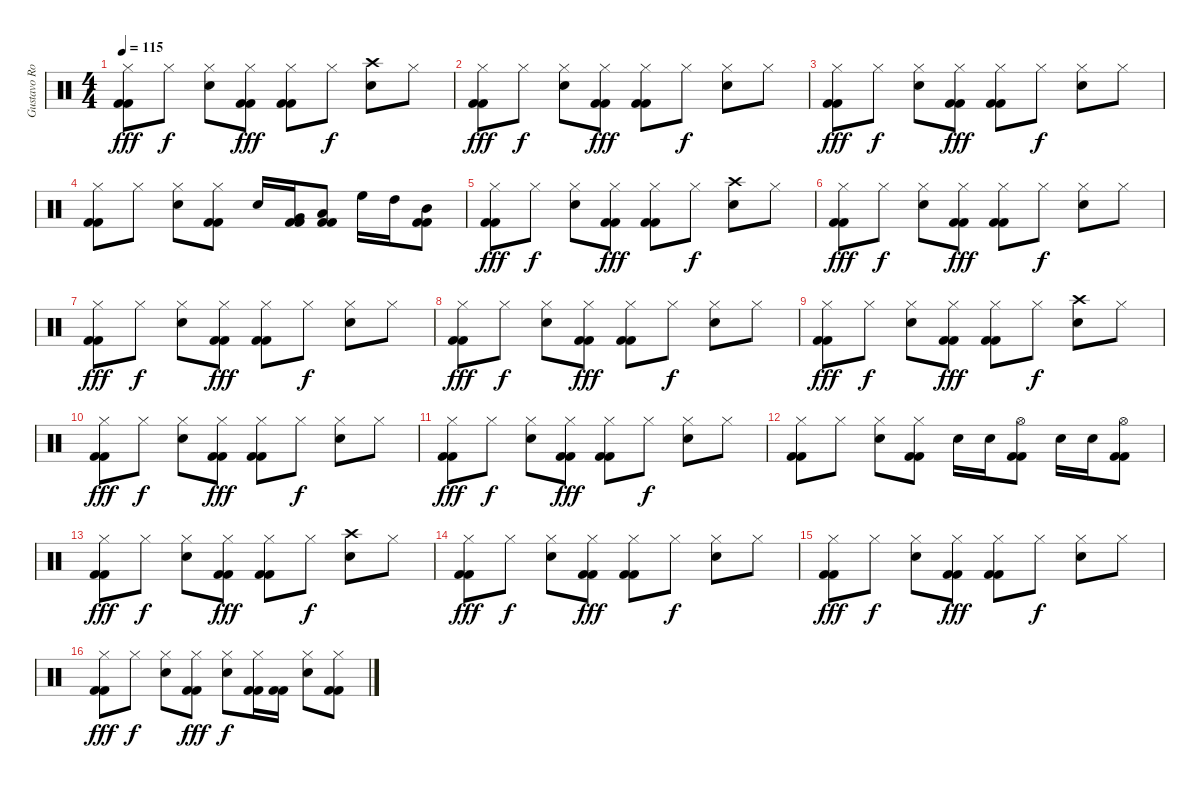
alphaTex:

\track ("Gustavo Rowek" "Gustavo Ro") {instrument percussion}
\staff {score}
\articulation defaults
\ts (4 4)
\tempo 115
\clef neutral
\ks c
("Kick (hit) 2" "Kick (hit) 2" "Hi-Hat (closed)").8{dy fff} "Hi-Hat (closed)".8{dy f} ("Snare (hit) 2" "Hi-Hat (closed)").8 ("Kick (hit) 2" "Kick (hit) 2" "Hi-Hat (closed)").8{dy fff} ("Kick (hit) 2" "Kick (hit) 2" "Hi-Hat (closed)").8 "Hi-Hat (closed)".8{dy f} ("Snare (hit) 2" "Crash high (hit)").8 "Hi-Hat (closed)".8 |
("Kick (hit) 2" "Kick (hit) 2" "Hi-Hat (closed)").8{dy fff} "Hi-Hat (closed)".8{dy f} ("Snare (hit) 2" "Hi-Hat (closed)").8 ("Kick (hit) 2" "Kick (hit) 2" "Hi-Hat (closed)").8{dy fff} ("Kick (hit) 2" "Kick (hit) 2" "Hi-Hat (closed)").8 "Hi-Hat (closed)".8{dy f} ("Snare (hit) 2" "Hi-Hat (closed)").8 "Hi-Hat (closed)".8 |
("Kick (hit) 2" "Kick (hit) 2" "Hi-Hat (closed)").8{dy fff} "Hi-Hat (closed)".8{dy f} ("Snare (hit) 2" "Hi-Hat (closed)").8 ("Kick (hit) 2" "Kick (hit) 2" "Hi-Hat (closed)").8{dy fff} ("Kick (hit) 2" "Kick (hit) 2" "Hi-Hat (closed)").8 "Hi-Hat (closed)".8{dy f} ("Snare (hit) 2" "Hi-Hat (closed)").8 "Hi-Hat (closed)".8 |
("Kick (hit) 2" "Kick (hit) 2" "Hi-Hat (closed)").8 "Hi-Hat (closed)".8 ("Snare (hit) 2" "Hi-Hat (closed)").8 ("Kick (hit) 2" "Kick (hit) 2" "Hi-Hat (closed)").8 "Snare (hit) 2".16 ("Kick (hit) 2" "Kick (hit) 2" "Very Low Tom (hit)").16 ("Kick (hit) 2" "Kick (hit) 2" "Low Floor Tom (hit)").8 "High Floor Tom (hit)".16 "High Tom (hit)".16 ("Kick (hit) 2" "Kick (hit) 2" "Mid Tom (hit)").8 |
("Kick (hit) 2" "Kick (hit) 2" "Hi-Hat (closed)").8{dy fff} "Hi-Hat (closed)".8{dy f} ("Snare (hit) 2" "Hi-Hat (closed)").8 ("Kick (hit) 2" "Kick (hit) 2" "Hi-Hat (closed)").8{dy fff} ("Kick (hit) 2" "Kick (hit) 2" "Hi-Hat (closed)").8 "Hi-Hat (closed)".8{dy f} ("Snare (hit) 2" "Crash high (hit)").8 "Hi-Hat (closed)".8 |
("Kick (hit) 2" "Kick (hit) 2" "Hi-Hat (closed)").8{dy fff} "Hi-Hat (closed)".8{dy f} ("Snare (hit) 2" "Hi-Hat (closed)").8 ("Kick (hit) 2" "Kick (hit) 2" "Hi-Hat (closed)").8{dy fff} ("Kick (hit) 2" "Kick (hit) 2" "Hi-Hat (closed)").8 "Hi-Hat (closed)".8{dy f} ("Snare (hit) 2" "Hi-Hat (closed)").8 "Hi-Hat (closed)".8 |
("Kick (hit) 2" "Kick (hit) 2" "Hi-Hat (closed)").8{dy fff} "Hi-Hat (closed)".8{dy f} ("Snare (hit) 2" "Hi-Hat (closed)").8 ("Kick (hit) 2" "Kick (hit) 2" "Hi-Hat (closed)").8{dy fff} ("Kick (hit) 2" "Kick (hit) 2" "Hi-Hat (closed)").8 "Hi-Hat (closed)".8{dy f} ("Snare (hit) 2" "Hi-Hat (closed)").8 "Hi-Hat (closed)".8 |
("Kick (hit) 2" "Kick (hit) 2" "Hi-Hat (closed)").8{dy fff} "Hi-Hat (closed)".8{dy f} ("Snare (hit) 2" "Hi-Hat (closed)").8 ("Kick (hit) 2" "Kick (hit) 2" "Hi-Hat (closed)").8{dy fff} ("Kick (hit) 2" "Kick (hit) 2" "Hi-Hat (closed)").8 "Hi-Hat (closed)".8{dy f} ("Snare (hit) 2" "Hi-Hat (closed)").8 "Hi-Hat (closed)".8 |
("Kick (hit) 2" "Kick (hit) 2" "Hi-Hat (closed)").8{dy fff} "Hi-Hat (closed)".8{dy f} ("Snare (hit) 2" "Hi-Hat (closed)").8 ("Kick (hit) 2" "Kick (hit) 2" "Hi-Hat (closed)").8{dy fff} ("Kick (hit) 2" "Kick (hit) 2" "Hi-Hat (closed)").8 "Hi-Hat (closed)".8{dy f} ("Snare (hit) 2" "Crash high (hit)").8 "Hi-Hat (closed)".8 |
("Kick (hit) 2" "Kick (hit) 2" "Hi-Hat (closed)").8{dy fff} "Hi-Hat (closed)".8{dy f} ("Snare (hit) 2" "Hi-Hat (closed)").8 ("Kick (hit) 2" "Kick (hit) 2" "Hi-Hat (closed)").8{dy fff} ("Kick (hit) 2" "Kick (hit) 2" "Hi-Hat (closed)").8 "Hi-Hat (closed)".8{dy f} ("Snare (hit) 2" "Hi-Hat (closed)").8 "Hi-Hat (closed)".8 |
("Kick (hit) 2" "Kick (hit) 2" "Hi-Hat (closed)").8{dy fff} "Hi-Hat (closed)".8{dy f} ("Snare (hit) 2" "Hi-Hat (closed)").8 ("Kick (hit) 2" "Kick (hit) 2" "Hi-Hat (closed)").8{dy fff} ("Kick (hit) 2" "Kick (hit) 2" "Hi-Hat (closed)").8 "Hi-Hat (closed)".8{dy f} ("Snare (hit) 2" "Hi-Hat (closed)").8 "Hi-Hat (closed)".8 |
("Kick (hit) 2" "Kick (hit) 2" "Hi-Hat (closed)").8 "Hi-Hat (closed)".8 ("Snare (hit) 2" "Hi-Hat (closed)").8 ("Kick (hit) 2" "Kick (hit) 2" "Hi-Hat (closed)").8 "Snare (hit) 2".16 "Snare (hit) 2".16 ("Kick (hit) 2" "Kick (hit) 2" "Hi-Hat (open)").8 "Snare (hit) 2".16 "Snare (hit) 2".16 ("Kick (hit) 2" "Kick (hit) 2" "Hi-Hat (open)").8 |
("Kick (hit) 2" "Kick (hit) 2" "Hi-Hat (closed)").8{dy fff} "Hi-Hat (closed)".8{dy f} ("Snare (hit) 2" "Hi-Hat (closed)").8 ("Kick (hit) 2" "Kick (hit) 2" "Hi-Hat (closed)").8{dy fff} ("Kick (hit) 2" "Kick (hit) 2" "Hi-Hat (closed)").8 "Hi-Hat (closed)".8{dy f} ("Snare (hit) 2" "Crash high (hit)").8 "Hi-Hat (closed)".8 |
("Kick (hit) 2" "Kick (hit) 2" "Hi-Hat (closed)").8{dy fff} "Hi-Hat (closed)".8{dy f} ("Snare (hit) 2" "Hi-Hat (closed)").8 ("Kick (hit) 2" "Kick (hit) 2" "Hi-Hat (closed)").8{dy fff} ("Kick (hit) 2" "Kick (hit) 2" "Hi-Hat (closed)").8 "Hi-Hat (closed)".8{dy f} ("Snare (hit) 2" "Hi-Hat (closed)").8 "Hi-Hat (closed)".8 |
("Kick (hit) 2" "Kick (hit) 2" "Hi-Hat (closed)").8{dy fff} "Hi-Hat (closed)".8{dy f} ("Snare (hit) 2" "Hi-Hat (closed)").8 ("Kick (hit) 2" "Kick (hit) 2" "Hi-Hat (closed)").8{dy fff} ("Kick (hit) 2" "Kick (hit) 2" "Hi-Hat (closed)").8 "Hi-Hat (closed)".8{dy f} ("Snare (hit) 2" "Hi-Hat (closed)").8 "Hi-Hat (closed)".8 |
("Kick (hit) 2" "Kick (hit) 2" "Hi-Hat (closed)").8{dy fff} "Hi-Hat (closed)".8{dy f} ("Snare (hit) 2" "Hi-Hat (closed)").8 ("Kick (hit) 2" "Kick (hit) 2" "Hi-Hat (closed)").8{dy fff} ("Snare (hit) 2" "Hi-Hat (closed)").8{dy f} ("Kick (hit) 2" "Kick (hit) 2" "Hi-Hat (closed)").16 ("Kick (hit) 2" "Kick (hit) 2").16 ("Snare (hit) 2" "Hi-Hat (closed)").8 ("Kick (hit) 2" "Kick (hit) 2" "Hi-Hat (closed)").8
